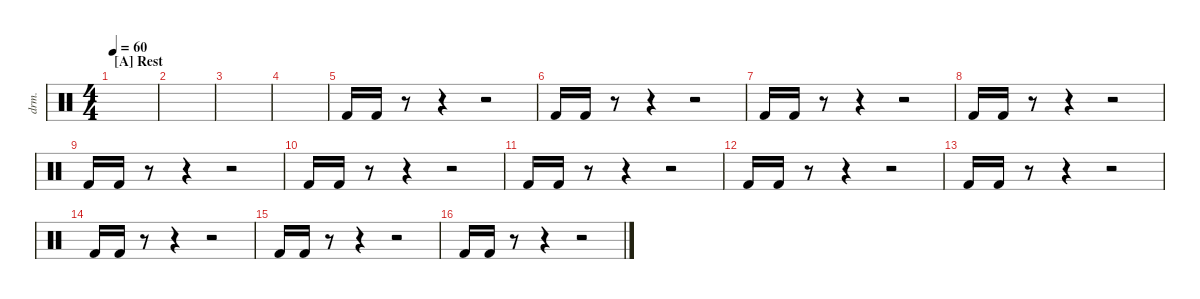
\defaultSystemsLayout 4
\hideDynamics
\bracketExtendMode nobrackets
\otherSystemsTrackNameOrientation horizontal
\track ("Drumkit" "drm.") {instrument percussion}
\staff {score}
\articulation defaults
\ts (4 4)
\section ("A" "Rest")
\tempo 60
\clef neutral
\ks c
|
|
|
|
"Kick (hit) 2".16{beam Up} "Kick (hit) 2".16{beam Up} r.8{beam Up} r.4{beam Up} r.2{beam Up} |
"Kick (hit) 2".16{beam Up} "Kick (hit) 2".16{beam Up} r.8{beam Up} r.4{beam Up} r.2{beam Up} |
"Kick (hit) 2".16{beam Up} "Kick (hit) 2".16{beam Up} r.8{beam Up} r.4{beam Up} r.2{beam Up} |
"Kick (hit) 2".16{beam Up} "Kick (hit) 2".16{beam Up} r.8{beam Up} r.4{beam Up} r.2{beam Up} |
"Kick (hit) 2".16{beam Up} "Kick (hit) 2".16{beam Up} r.8{beam Up} r.4{beam Up} r.2{beam Up} |
"Kick (hit) 2".16{beam Up} "Kick (hit) 2".16{beam Up} r.8{beam Up} r.4{beam Up} r.2{beam Up} |
"Kick (hit) 2".16{beam Up} "Kick (hit) 2".16{beam Up} r.8{beam Up} r.4{beam Up} r.2{beam Up} |
"Kick (hit) 2".16{beam Up} "Kick (hit) 2".16{beam Up} r.8{beam Up} r.4{beam Up} r.2{beam Up} |
"Kick (hit) 2".16{beam Up} "Kick (hit) 2".16{beam Up} r.8{beam Up} r.4{beam Up} r.2{beam Up} |
"Kick (hit) 2".16{beam Up} "Kick (hit) 2".16{beam Up} r.8{beam Up} r.4{beam Up} r.2{beam Up} |
"Kick (hit) 2".16{beam Up} "Kick (hit) 2".16{beam Up} r.8{beam Up} r.4{beam Up} r.2{beam Up} |
"Kick (hit) 2".16{beam Up} "Kick (hit) 2".16{beam Up} r.8{beam Up} r.4{beam Up} r.2{beam Up}
